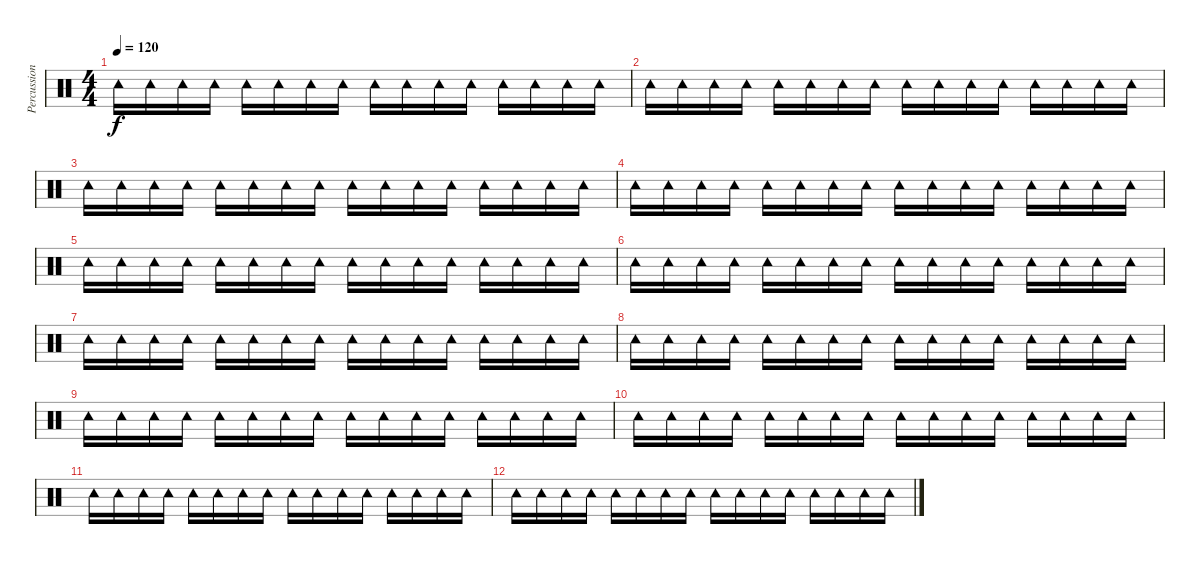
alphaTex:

\track ("Percussion" "Percussion") {instrument percussion}
\staff {score}
\articulation defaults
\ts (4 4)
\tempo 120
\clef neutral
\ks c "Tambourine (hit)".16{dy f volume 6} "Tambourine (hit)".16 "Tambourine (hit)".16 "Tambourine (hit)".16 "Tambourine (hit)".16 "Tambourine (hit)".16 "Tambourine (hit)".16 "Tambourine (hit)".16 "Tambourine (hit)".16 "Tambourine (hit)".16 "Tambourine (hit)".16 "Tambourine (hit)".16 "Tambourine (hit)".16 "Tambourine (hit)".16 "Tambourine (hit)".16 "Tambourine (hit)".16
|
"Tambourine (hit)".16 "Tambourine (hit)".16 "Tambourine (hit)".16 "Tambourine (hit)".16 "Tambourine (hit)".16 "Tambourine (hit)".16 "Tambourine (hit)".16 "Tambourine (hit)".16 "Tambourine (hit)".16 "Tambourine (hit)".16 "Tambourine (hit)".16 "Tambourine (hit)".16 "Tambourine (hit)".16 "Tambourine (hit)".16 "Tambourine (hit)".16 "Tambourine (hit)".16 |
"Tambourine (hit)".16 "Tambourine (hit)".16 "Tambourine (hit)".16 "Tambourine (hit)".16 "Tambourine (hit)".16 "Tambourine (hit)".16 "Tambourine (hit)".16 "Tambourine (hit)".16 "Tambourine (hit)".16 "Tambourine (hit)".16 "Tambourine (hit)".16 "Tambourine (hit)".16 "Tambourine (hit)".16 "Tambourine (hit)".16 "Tambourine (hit)".16 "Tambourine (hit)".16 |
"Tambourine (hit)".16 "Tambourine (hit)".16 "Tambourine (hit)".16 "Tambourine (hit)".16 "Tambourine (hit)".16 "Tambourine (hit)".16 "Tambourine (hit)".16 "Tambourine (hit)".16 "Tambourine (hit)".16 "Tambourine (hit)".16 "Tambourine (hit)".16 "Tambourine (hit)".16 "Tambourine (hit)".16 "Tambourine (hit)".16 "Tambourine (hit)".16 "Tambourine (hit)".16 |
"Tambourine (hit)".16 "Tambourine (hit)".16 "Tambourine (hit)".16 "Tambourine (hit)".16 "Tambourine (hit)".16 "Tambourine (hit)".16 "Tambourine (hit)".16 "Tambourine (hit)".16 "Tambourine (hit)".16 "Tambourine (hit)".16 "Tambourine (hit)".16 "Tambourine (hit)".16 "Tambourine (hit)".16 "Tambourine (hit)".16 "Tambourine (hit)".16 "Tambourine (hit)".16 |
"Tambourine (hit)".16 "Tambourine (hit)".16 "Tambourine (hit)".16 "Tambourine (hit)".16 "Tambourine (hit)".16 "Tambourine (hit)".16 "Tambourine (hit)".16 "Tambourine (hit)".16 "Tambourine (hit)".16 "Tambourine (hit)".16 "Tambourine (hit)".16 "Tambourine (hit)".16 "Tambourine (hit)".16 "Tambourine (hit)".16 "Tambourine (hit)".16 "Tambourine (hit)".16 |
"Tambourine (hit)".16 "Tambourine (hit)".16 "Tambourine (hit)".16 "Tambourine (hit)".16 "Tambourine (hit)".16 "Tambourine (hit)".16 "Tambourine (hit)".16 "Tambourine (hit)".16 "Tambourine (hit)".16 "Tambourine (hit)".16 "Tambourine (hit)".16 "Tambourine (hit)".16 "Tambourine (hit)".16 "Tambourine (hit)".16 "Tambourine (hit)".16 "Tambourine (hit)".16 |
"Tambourine (hit)".16 "Tambourine (hit)".16 "Tambourine (hit)".16 "Tambourine (hit)".16 "Tambourine (hit)".16 "Tambourine (hit)".16 "Tambourine (hit)".16 "Tambourine (hit)".16 "Tambourine (hit)".16 "Tambourine (hit)".16 "Tambourine (hit)".16 "Tambourine (hit)".16 "Tambourine (hit)".16 "Tambourine (hit)".16 "Tambourine (hit)".16 "Tambourine (hit)".16 |
"Tambourine (hit)".16 "Tambourine (hit)".16 "Tambourine (hit)".16 "Tambourine (hit)".16 "Tambourine (hit)".16 "Tambourine (hit)".16 "Tambourine (hit)".16 "Tambourine (hit)".16 "Tambourine (hit)".16 "Tambourine (hit)".16 "Tambourine (hit)".16 "Tambourine (hit)".16 "Tambourine (hit)".16 "Tambourine (hit)".16 "Tambourine (hit)".16 "Tambourine (hit)".16 |
"Tambourine (hit)".16 "Tambourine (hit)".16 "Tambourine (hit)".16 "Tambourine (hit)".16 "Tambourine (hit)".16 "Tambourine (hit)".16 "Tambourine (hit)".16 "Tambourine (hit)".16 "Tambourine (hit)".16 "Tambourine (hit)".16 "Tambourine (hit)".16 "Tambourine (hit)".16 "Tambourine (hit)".16 "Tambourine (hit)".16 "Tambourine (hit)".16 "Tambourine (hit)".16 |
"Tambourine (hit)".16 "Tambourine (hit)".16 "Tambourine (hit)".16 "Tambourine (hit)".16 "Tambourine (hit)".16 "Tambourine (hit)".16 "Tambourine (hit)".16 "Tambourine (hit)".16 "Tambourine (hit)".16 "Tambourine (hit)".16 "Tambourine (hit)".16 "Tambourine (hit)".16 "Tambourine (hit)".16 "Tambourine (hit)".16 "Tambourine (hit)".16 "Tambourine (hit)".16 |
"Tambourine (hit)".16 "Tambourine (hit)".16 "Tambourine (hit)".16 "Tambourine (hit)".16 "Tambourine (hit)".16 "Tambourine (hit)".16 "Tambourine (hit)".16 "Tambourine (hit)".16 "Tambourine (hit)".16 "Tambourine (hit)".16 "Tambourine (hit)".16 "Tambourine (hit)".16 "Tambourine (hit)".16 "Tambourine (hit)".16 "Tambourine (hit)".16 "Tambourine (hit)".16
